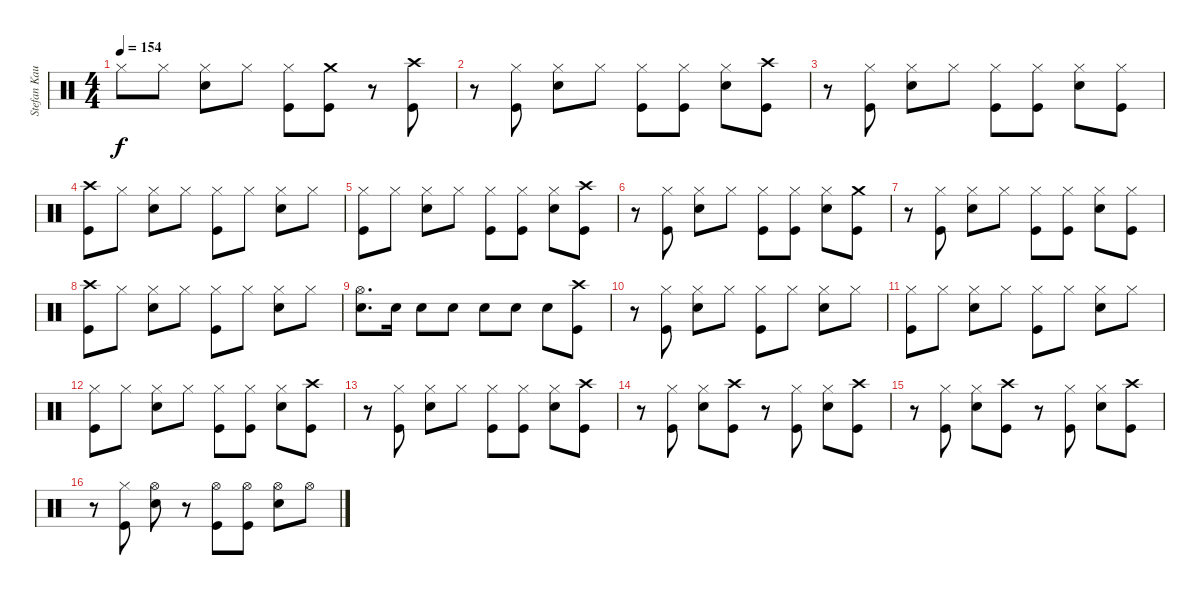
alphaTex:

\track ("Stefan Kaufmann" "Stefan Kau") {instrument percussion}
\staff {score}
\articulation defaults
\ts (4 4)
\tempo 154
\clef neutral
\ks c "Hi-Hat (closed)".8{dy f} "Hi-Hat (closed)".8
("Hi-Hat (closed)" "Snare (hit) 2").8 "Hi-Hat (closed)".8 ("Hi-Hat (closed)" "Kick (hit)").8 ("Kick (hit)" "Crash medium (hit)").8 r.8 ("Crash high (hit)" "Kick (hit)").8 |
r.8 ("Hi-Hat (closed)" "Kick (hit)").8 ("Hi-Hat (closed)" "Snare (hit) 2").8 "Hi-Hat (closed)".8 ("Hi-Hat (closed)" "Kick (hit)").8 ("Hi-Hat (closed)" "Kick (hit)").8 ("Hi-Hat (closed)" "Snare (hit) 2").8 ("Crash high (hit)" "Kick (hit)").8 |
r.8 ("Hi-Hat (closed)" "Kick (hit)").8 ("Hi-Hat (closed)" "Snare (hit) 2").8 "Hi-Hat (closed)".8 ("Hi-Hat (closed)" "Kick (hit)").8 ("Hi-Hat (closed)" "Kick (hit)").8 ("Hi-Hat (closed)" "Snare (hit) 2").8 ("Hi-Hat (closed)" "Kick (hit)").8 |
("Crash high (hit)" "Kick (hit)").8 "Hi-Hat (closed)".8 ("Hi-Hat (closed)" "Snare (hit) 2").8 "Hi-Hat (closed)".8 ("Hi-Hat (closed)" "Kick (hit)").8 "Hi-Hat (closed)".8 ("Hi-Hat (closed)" "Snare (hit) 2").8 "Hi-Hat (closed)".8 |
("Hi-Hat (closed)" "Kick (hit)").8 "Hi-Hat (closed)".8 ("Hi-Hat (closed)" "Snare (hit) 2").8 "Hi-Hat (closed)".8 ("Hi-Hat (closed)" "Kick (hit)").8 ("Hi-Hat (closed)" "Kick (hit)").8 ("Hi-Hat (closed)" "Snare (hit) 2").8 ("Crash high (hit)" "Kick (hit)").8 |
r.8 ("Hi-Hat (closed)" "Kick (hit)").8 ("Hi-Hat (closed)" "Snare (hit) 2").8 "Hi-Hat (closed)".8 ("Hi-Hat (closed)" "Kick (hit)").8 ("Hi-Hat (closed)" "Kick (hit)").8 ("Hi-Hat (closed)" "Snare (hit) 2").8 ("Kick (hit)" "Crash medium (hit)").8 |
r.8 ("Hi-Hat (closed)" "Kick (hit)").8 ("Hi-Hat (closed)" "Snare (hit) 2").8 "Hi-Hat (closed)".8 ("Hi-Hat (closed)" "Kick (hit)").8 ("Hi-Hat (closed)" "Kick (hit)").8 ("Hi-Hat (closed)" "Snare (hit) 2").8 ("Hi-Hat (closed)" "Kick (hit)").8 |
("Crash high (hit)" "Kick (hit)").8 "Hi-Hat (closed)".8 ("Hi-Hat (closed)" "Snare (hit) 2").8 "Hi-Hat (closed)".8 ("Hi-Hat (closed)" "Kick (hit)").8 "Hi-Hat (closed)".8 ("Hi-Hat (closed)" "Snare (hit) 2").8 "Hi-Hat (closed)".8 |
("Hi-Hat (open)" "Snare (hit) 2").8{d} "Snare (hit) 2".16 "Snare (hit) 2".8 "Snare (hit) 2".8 "Snare (hit) 2".8 "Snare (hit) 2".8 "Snare (hit) 2".8 ("Crash high (hit)" "Kick (hit)").8 |
r.8 ("Hi-Hat (closed)" "Kick (hit)").8 ("Hi-Hat (closed)" "Snare (hit) 2").8 "Hi-Hat (closed)".8 ("Hi-Hat (closed)" "Kick (hit)").8 "Hi-Hat (closed)".8 ("Hi-Hat (closed)" "Snare (hit) 2").8 "Hi-Hat (closed)".8 |
("Hi-Hat (closed)" "Kick (hit)").8 "Hi-Hat (closed)".8 ("Hi-Hat (closed)" "Snare (hit) 2").8 "Hi-Hat (closed)".8 ("Hi-Hat (closed)" "Kick (hit)").8 "Hi-Hat (closed)".8 ("Hi-Hat (closed)" "Snare (hit) 2").8 "Hi-Hat (closed)".8 |
("Hi-Hat (closed)" "Kick (hit)").8 "Hi-Hat (closed)".8 ("Hi-Hat (closed)" "Snare (hit) 2").8 "Hi-Hat (closed)".8 ("Hi-Hat (closed)" "Kick (hit)").8 ("Hi-Hat (closed)" "Kick (hit)").8 ("Hi-Hat (closed)" "Snare (hit) 2").8 ("Crash high (hit)" "Kick (hit)").8 |
r.8 ("Hi-Hat (closed)" "Kick (hit)").8 ("Hi-Hat (closed)" "Snare (hit) 2").8 "Hi-Hat (closed)".8 ("Hi-Hat (closed)" "Kick (hit)").8 ("Hi-Hat (closed)" "Kick (hit)").8 ("Hi-Hat (closed)" "Snare (hit) 2").8 ("Crash high (hit)" "Kick (hit)").8 |
r.8 ("Hi-Hat (closed)" "Kick (hit)").8 ("Hi-Hat (closed)" "Snare (hit) 2").8 ("Crash high (hit)" "Kick (hit)").8 r.8 ("Hi-Hat (closed)" "Kick (hit)").8 ("Hi-Hat (closed)" "Snare (hit) 2").8 ("Crash high (hit)" "Kick (hit)").8 |
r.8 ("Hi-Hat (closed)" "Kick (hit)").8 ("Hi-Hat (closed)" "Snare (hit) 2").8 ("Crash high (hit)" "Kick (hit)").8 r.8 ("Hi-Hat (closed)" "Kick (hit)").8 ("Hi-Hat (closed)" "Snare (hit) 2").8 ("Crash high (hit)" "Kick (hit)").8 |
r.8 ("Hi-Hat (closed)" "Kick (hit)").8 ("Hi-Hat (open)" "Snare (hit) 2").8 r.8 ("Hi-Hat (open)" "Kick (hit)").8 ("Hi-Hat (open)" "Kick (hit)").8 ("Hi-Hat (open)" "Snare (hit) 2").8 "Hi-Hat (open)".8
